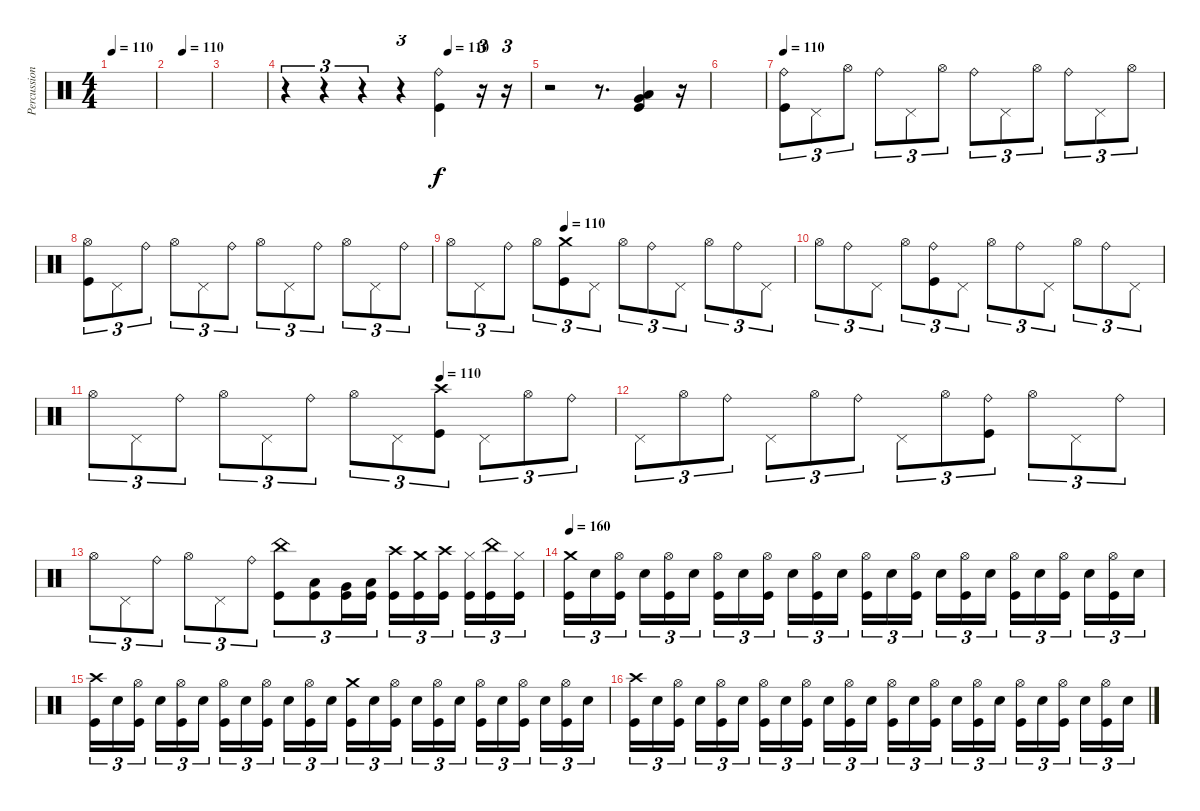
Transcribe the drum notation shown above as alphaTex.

\track ("Percussion" "Percussion") {instrument percussion}
\staff {score}
\articulation defaults
\ts (4 4)
\tempo 110
\clef neutral
\ks c
|
\tempo (110 0.3333333333333333)
|
|
\tempo (110 0.6666666666666666)
r.4{tu (3 2)} r.4{tu (3 2)} r.4{tu (3 2)} r.4{tu (3 2)} ("Ride (bell)" "Kick (hit)").4 r.16{tu (3 2)} r.16{tu (3 2)} |
r.2 r.8{d} ("Low Floor Tom (hit)" "Very Low Tom (hit)" "Kick (hit)").4 r.16 |
|
\tempo 110
("Ride (bell)" "Kick (hit)").8{tu (3 2)} "Pedal Hi-Hat (hit)".8{tu (3 2)} "Hi-Hat (open)".8{tu (3 2)} "Ride (bell)".8{tu (3 2)} "Pedal Hi-Hat (hit)".8{tu (3 2)} "Hi-Hat (open)".8{tu (3 2)} "Ride (bell)".8{tu (3 2)} "Pedal Hi-Hat (hit)".8{tu (3 2)} "Hi-Hat (open)".8{tu (3 2)} "Ride (bell)".8{tu (3 2)} "Pedal Hi-Hat (hit)".8{tu (3 2)} "Hi-Hat (open)".8{tu (3 2)} |
("Hi-Hat (open)" "Kick (hit)").8{tu (3 2)} "Pedal Hi-Hat (hit)".8{tu (3 2)} "Ride (bell)".8{tu (3 2)} "Hi-Hat (open)".8{tu (3 2)} "Pedal Hi-Hat (hit)".8{tu (3 2)} "Ride (bell)".8{tu (3 2)} "Hi-Hat (open)".8{tu (3 2)} "Pedal Hi-Hat (hit)".8{tu (3 2)} "Ride (bell)".8{tu (3 2)} "Hi-Hat (open)".8{tu (3 2)} "Pedal Hi-Hat (hit)".8{tu (3 2)} "Ride (bell)".8{tu (3 2)} |
\tempo (110 0.3333333333333333)
"Hi-Hat (open)".8{tu (3 2)} "Pedal Hi-Hat (hit)".8{tu (3 2)} "Ride (bell)".8{tu (3 2)} "Hi-Hat (open)".8{tu (3 2)} ("Crash medium (hit)" "Kick (hit)").8{tu (3 2)} "Pedal Hi-Hat (hit)".8{tu (3 2)} "Hi-Hat (open)".8{tu (3 2)} "Ride (bell)".8{tu (3 2)} "Pedal Hi-Hat (hit)".8{tu (3 2)} "Hi-Hat (open)".8{tu (3 2)} "Ride (bell)".8{tu (3 2)} "Pedal Hi-Hat (hit)".8{tu (3 2)} |
"Hi-Hat (open)".8{tu (3 2)} "Ride (bell)".8{tu (3 2)} "Pedal Hi-Hat (hit)".8{tu (3 2)} "Hi-Hat (open)".8{tu (3 2)} ("Ride (bell)" "Kick (hit)").8{tu (3 2)} "Pedal Hi-Hat (hit)".8{tu (3 2)} "Hi-Hat (open)".8{tu (3 2)} "Ride (bell)".8{tu (3 2)} "Pedal Hi-Hat (hit)".8{tu (3 2)} "Hi-Hat (open)".8{tu (3 2)} "Ride (bell)".8{tu (3 2)} "Pedal Hi-Hat (hit)".8{tu (3 2)} |
\tempo (110 0.6666666666666666)
"Hi-Hat (open)".8{tu (3 2)} "Pedal Hi-Hat (hit)".8{tu (3 2)} "Ride (bell)".8{tu (3 2)} "Hi-Hat (open)".8{tu (3 2)} "Pedal Hi-Hat (hit)".8{tu (3 2)} "Ride (bell)".8{tu (3 2)} "Hi-Hat (open)".8{tu (3 2)} "Pedal Hi-Hat (hit)".8{tu (3 2)} ("Crash high (hit)" "Kick (hit)").8{tu (3 2)} "Pedal Hi-Hat (hit)".8{tu (3 2)} "Hi-Hat (open)".8{tu (3 2)} "Ride (bell)".8{tu (3 2)} |
"Pedal Hi-Hat (hit)".8{tu (3 2)} "Hi-Hat (open)".8{tu (3 2)} "Ride (bell)".8{tu (3 2)} "Pedal Hi-Hat (hit)".8{tu (3 2)} "Hi-Hat (open)".8{tu (3 2)} "Ride (bell)".8{tu (3 2)} "Pedal Hi-Hat (hit)".8{tu (3 2)} "Hi-Hat (open)".8{tu (3 2)} ("Ride (bell)" "Kick (hit)").8{tu (3 2)} "Hi-Hat (open)".8{tu (3 2)} "Pedal Hi-Hat (hit)".8{tu (3 2)} "Ride (bell)".8{tu (3 2)} |
"Hi-Hat (open)".8{tu (3 2)} "Pedal Hi-Hat (hit)".8{tu (3 2)} "Ride (bell)".8{tu (3 2)} "Hi-Hat (open)".8{tu (3 2)} "Pedal Hi-Hat (hit)".8{tu (3 2)} "Ride (bell)".8{tu (3 2)} ("China (hit)" "Kick (hit)").8{tu (3 2)} ("Low Tom (hit)" "Kick (hit)").8{tu (3 2)} ("Very Low Tom (hit)" "Kick (hit)").16{tu (3 2)} ("Low Floor Tom (hit)" "Kick (hit)").16{tu (3 2)} ("Crash high (hit)" "Kick (hit)").16{tu (3 2)} ("Crash medium (hit)" "Kick (hit)").16{tu (3 2)} ("Crash high (hit)" "Kick (hit)").16{tu (3 2) beam splitsecondary} ("Hi-Hat (closed)" "Kick (hit)").16{tu (3 2)} ("China (hit)" "Kick (hit)").16{tu (3 2)} ("Hi-Hat (closed)" "Kick (hit)").16{tu (3 2)} |
\tempo 160
("Crash medium (hit)" "Kick (hit)").16{tu (3 2)} "Snare (hit) 2".16{tu (3 2)} ("Hi-Hat (open)" "Kick (hit)").16{tu (3 2) beam splitsecondary} "Snare (hit) 2".16{tu (3 2)} ("Hi-Hat (open)" "Kick (hit)").16{tu (3 2)} "Snare (hit) 2".16{tu (3 2)} ("Hi-Hat (open)" "Kick (hit)").16{tu (3 2)} "Snare (hit) 2".16{tu (3 2)} ("Hi-Hat (open)" "Kick (hit)").16{tu (3 2) beam splitsecondary} "Snare (hit) 2".16{tu (3 2)} ("Hi-Hat (open)" "Kick (hit)").16{tu (3 2)} "Snare (hit) 2".16{tu (3 2)} ("Hi-Hat (open)" "Kick (hit)").16{tu (3 2)} "Snare (hit) 2".16{tu (3 2)} ("Hi-Hat (open)" "Kick (hit)").16{tu (3 2) beam splitsecondary} "Snare (hit) 2".16{tu (3 2)} ("Hi-Hat (open)" "Kick (hit)").16{tu (3 2)} "Snare (hit) 2".16{tu (3 2)} ("Hi-Hat (open)" "Kick (hit)").16{tu (3 2)} "Snare (hit) 2".16{tu (3 2)} ("Hi-Hat (open)" "Kick (hit)").16{tu (3 2) beam splitsecondary} "Snare (hit) 2".16{tu (3 2)} ("Hi-Hat (open)" "Kick (hit)").16{tu (3 2)} "Snare (hit) 2".16{tu (3 2)} |
("Crash high (hit)" "Kick (hit)").16{tu (3 2)} "Snare (hit) 2".16{tu (3 2)} ("Hi-Hat (open)" "Kick (hit)").16{tu (3 2) beam splitsecondary} "Snare (hit) 2".16{tu (3 2)} ("Hi-Hat (open)" "Kick (hit)").16{tu (3 2)} "Snare (hit) 2".16{tu (3 2)} ("Hi-Hat (open)" "Kick (hit)").16{tu (3 2)} "Snare (hit) 2".16{tu (3 2)} ("Hi-Hat (open)" "Kick (hit)").16{tu (3 2) beam splitsecondary} "Snare (hit) 2".16{tu (3 2)} ("Hi-Hat (open)" "Kick (hit)").16{tu (3 2)} "Snare (hit) 2".16{tu (3 2)} ("Crash medium (hit)" "Kick (hit)").16{tu (3 2)} "Snare (hit) 2".16{tu (3 2)} ("Hi-Hat (open)" "Kick (hit)").16{tu (3 2) beam splitsecondary} "Snare (hit) 2".16{tu (3 2)} ("Hi-Hat (open)" "Kick (hit)").16{tu (3 2)} "Snare (hit) 2".16{tu (3 2)} ("Hi-Hat (open)" "Kick (hit)").16{tu (3 2)} "Snare (hit) 2".16{tu (3 2)} ("Hi-Hat (open)" "Kick (hit)").16{tu (3 2) beam splitsecondary} "Snare (hit) 2".16{tu (3 2)} ("Hi-Hat (open)" "Kick (hit)").16{tu (3 2)} "Snare (hit) 2".16{tu (3 2)} |
("Crash high (hit)" "Kick (hit)").16{tu (3 2)} "Snare (hit) 2".16{tu (3 2)} ("Hi-Hat (open)" "Kick (hit)").16{tu (3 2) beam splitsecondary} "Snare (hit) 2".16{tu (3 2)} ("Hi-Hat (open)" "Kick (hit)").16{tu (3 2)} "Snare (hit) 2".16{tu (3 2)} ("Hi-Hat (open)" "Kick (hit)").16{tu (3 2)} "Snare (hit) 2".16{tu (3 2)} ("Hi-Hat (open)" "Kick (hit)").16{tu (3 2) beam splitsecondary} "Snare (hit) 2".16{tu (3 2)} ("Hi-Hat (open)" "Kick (hit)").16{tu (3 2)} "Snare (hit) 2".16{tu (3 2)} ("Hi-Hat (open)" "Kick (hit)").16{tu (3 2)} "Snare (hit) 2".16{tu (3 2)} ("Hi-Hat (open)" "Kick (hit)").16{tu (3 2) beam splitsecondary} "Snare (hit) 2".16{tu (3 2)} ("Hi-Hat (open)" "Kick (hit)").16{tu (3 2)} "Snare (hit) 2".16{tu (3 2)} ("Hi-Hat (open)" "Kick (hit)").16{tu (3 2)} "Snare (hit) 2".16{tu (3 2)} ("Hi-Hat (open)" "Kick (hit)").16{tu (3 2) beam splitsecondary} "Snare (hit) 2".16{tu (3 2)} ("Hi-Hat (open)" "Kick (hit)").16{tu (3 2)} "Snare (hit) 2".16{tu (3 2)}
